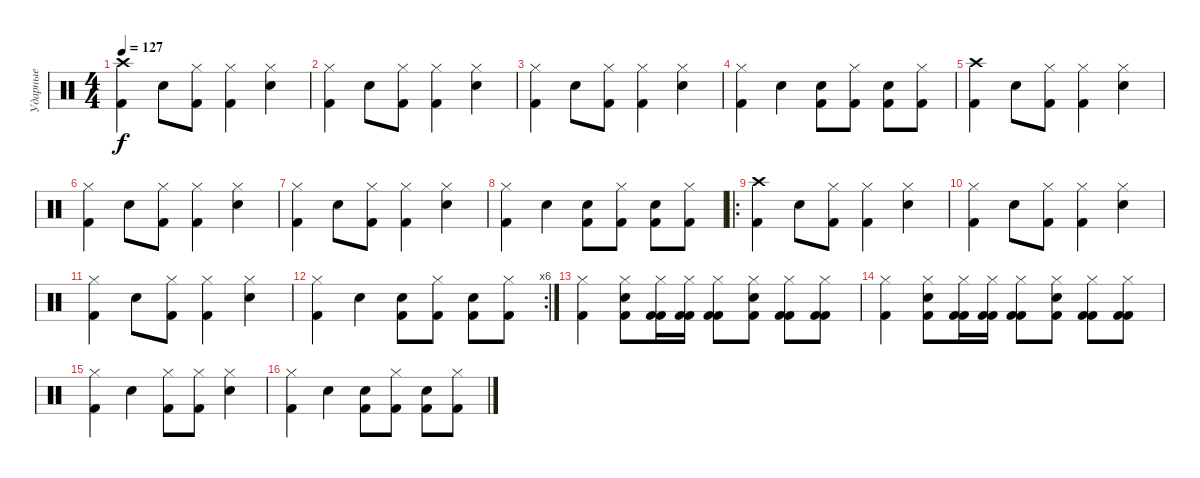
\track ("Ударные" "Ударные") {instrument percussion}
\staff {score}
\articulation defaults
\ts (4 4)
\tempo 127
\clef neutral
\ks c
("Crash high (hit)" "Kick (hit) 2").4{dy f} "Electric Snare (hit)".8 ("Hi-Hat (closed)" "Kick (hit) 2").8 ("Hi-Hat (closed)" "Kick (hit) 2").4 ("Hi-Hat (closed)" "Electric Snare (hit)").4 |
("Hi-Hat (closed)" "Kick (hit) 2").4 "Electric Snare (hit)".8 ("Hi-Hat (closed)" "Kick (hit) 2").8 ("Hi-Hat (closed)" "Kick (hit) 2").4 ("Hi-Hat (closed)" "Electric Snare (hit)").4 |
("Hi-Hat (closed)" "Kick (hit) 2").4 "Electric Snare (hit)".8 ("Hi-Hat (closed)" "Kick (hit) 2").8 ("Hi-Hat (closed)" "Kick (hit) 2").4 ("Hi-Hat (closed)" "Electric Snare (hit)").4 |
("Hi-Hat (closed)" "Kick (hit) 2").4 "Electric Snare (hit)".4 ("Kick (hit) 2" "Electric Snare (hit)").8 ("Hi-Hat (closed)" "Kick (hit) 2").8 ("Kick (hit) 2" "Electric Snare (hit)").8 ("Hi-Hat (closed)" "Kick (hit) 2").8 |
("Crash high (hit)" "Kick (hit) 2").4 "Electric Snare (hit)".8 ("Hi-Hat (closed)" "Kick (hit) 2").8 ("Hi-Hat (closed)" "Kick (hit) 2").4 ("Hi-Hat (closed)" "Electric Snare (hit)").4 |
("Hi-Hat (closed)" "Kick (hit) 2").4 "Electric Snare (hit)".8 ("Hi-Hat (closed)" "Kick (hit) 2").8 ("Hi-Hat (closed)" "Kick (hit) 2").4 ("Hi-Hat (closed)" "Electric Snare (hit)").4 |
("Hi-Hat (closed)" "Kick (hit) 2").4 "Electric Snare (hit)".8 ("Hi-Hat (closed)" "Kick (hit) 2").8 ("Hi-Hat (closed)" "Kick (hit) 2").4 ("Hi-Hat (closed)" "Electric Snare (hit)").4 |
("Hi-Hat (closed)" "Kick (hit) 2").4 "Electric Snare (hit)".4 ("Kick (hit) 2" "Electric Snare (hit)").8 ("Hi-Hat (closed)" "Kick (hit) 2").8 ("Kick (hit) 2" "Electric Snare (hit)").8 ("Hi-Hat (closed)" "Kick (hit) 2").8 |
\ro
("Crash high (hit)" "Kick (hit) 2").4 "Electric Snare (hit)".8 ("Hi-Hat (closed)" "Kick (hit) 2").8 ("Hi-Hat (closed)" "Kick (hit) 2").4 ("Hi-Hat (closed)" "Electric Snare (hit)").4 |
("Hi-Hat (closed)" "Kick (hit) 2").4 "Electric Snare (hit)".8 ("Hi-Hat (closed)" "Kick (hit) 2").8 ("Hi-Hat (closed)" "Kick (hit) 2").4 ("Hi-Hat (closed)" "Electric Snare (hit)").4 |
("Hi-Hat (closed)" "Kick (hit) 2").4 "Electric Snare (hit)".8 ("Hi-Hat (closed)" "Kick (hit) 2").8 ("Hi-Hat (closed)" "Kick (hit) 2").4 ("Hi-Hat (closed)" "Electric Snare (hit)").4 |
\rc 6
("Hi-Hat (closed)" "Kick (hit) 2").4 "Electric Snare (hit)".4 ("Kick (hit) 2" "Electric Snare (hit)").8 ("Hi-Hat (closed)" "Kick (hit) 2").8 ("Kick (hit) 2" "Electric Snare (hit)").8 ("Hi-Hat (closed)" "Kick (hit) 2").8 |
("Hi-Hat (closed)" "Kick (hit) 2").4 ("Hi-Hat (closed)" "Kick (hit) 2" "Electric Snare (hit)").8 ("Hi-Hat (closed)" "Kick (hit) 2" "Kick (hit) 2").16 ("Hi-Hat (closed)" "Kick (hit) 2" "Kick (hit) 2").16 ("Hi-Hat (closed)" "Kick (hit) 2" "Kick (hit) 2").8 ("Hi-Hat (closed)" "Kick (hit) 2" "Electric Snare (hit)").8 ("Hi-Hat (closed)" "Kick (hit) 2" "Kick (hit) 2").8 ("Hi-Hat (closed)" "Kick (hit) 2" "Kick (hit) 2").8 |
("Hi-Hat (closed)" "Kick (hit) 2").4 ("Hi-Hat (closed)" "Kick (hit) 2" "Electric Snare (hit)").8 ("Hi-Hat (closed)" "Kick (hit) 2" "Kick (hit) 2").16 ("Hi-Hat (closed)" "Kick (hit) 2" "Kick (hit) 2").16 ("Hi-Hat (closed)" "Kick (hit) 2" "Kick (hit) 2").8 ("Hi-Hat (closed)" "Kick (hit) 2" "Electric Snare (hit)").8 ("Hi-Hat (closed)" "Kick (hit) 2" "Kick (hit) 2").8 ("Hi-Hat (closed)" "Kick (hit) 2" "Kick (hit) 2").8 |
("Hi-Hat (closed)" "Kick (hit) 2").4 "Electric Snare (hit)".4 ("Hi-Hat (closed)" "Kick (hit) 2").8 ("Hi-Hat (closed)" "Kick (hit) 2").8 ("Hi-Hat (closed)" "Electric Snare (hit)").4 |
("Hi-Hat (closed)" "Kick (hit) 2").4 "Electric Snare (hit)".4 ("Kick (hit) 2" "Electric Snare (hit)").8 ("Hi-Hat (closed)" "Kick (hit) 2").8 ("Kick (hit) 2" "Electric Snare (hit)").8 ("Hi-Hat (closed)" "Kick (hit) 2").8
